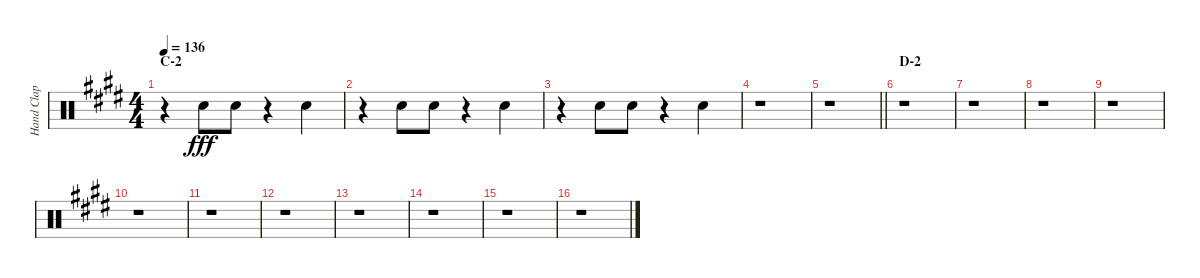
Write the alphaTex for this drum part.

\track ("Hand Clap" "Hand Clap") {instrument percussion}
\staff {score}
\articulation defaults
\ts (4 4)
\section ("" "C-2")
\tempo 136
\clef neutral
\ks e
r.4{dy fff} "Hand Clap (hit)".8 "Hand Clap (hit)".8 r.4 "Hand Clap (hit)".4 |
r.4 "Hand Clap (hit)".8 "Hand Clap (hit)".8 r.4 "Hand Clap (hit)".4 |
r.4 "Hand Clap (hit)".8 "Hand Clap (hit)".8 r.4 "Hand Clap (hit)".4 |
r.1 |
\barLineRight lightlight
r.1 |
\section ("" "D-2")
r.1 |
r.1 |
r.1 |
r.1 |
r.1 |
r.1 |
r.1 |
r.1 |
r.1 |
r.1 |
r.1
